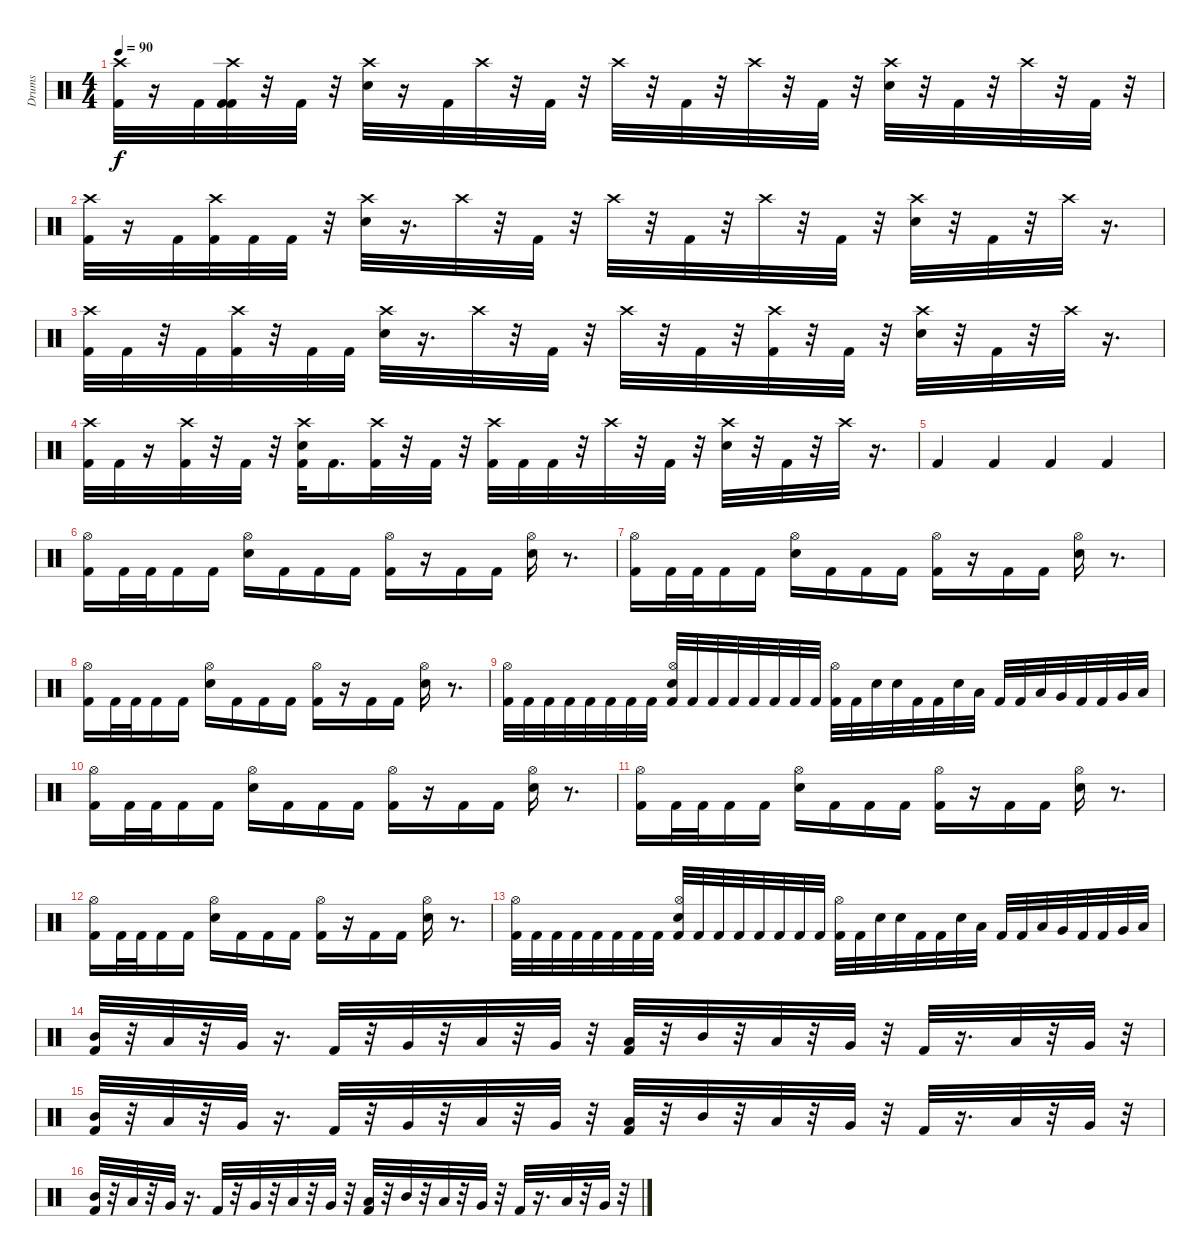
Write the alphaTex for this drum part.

\track ("Drums" "Drums") {instrument percussion}
\staff {score}
\articulation defaults
\ts (4 4)
\tempo 90
\clef neutral
\ks c
("Kick (hit) 2" "Crash high (hit)").32{dy f} r.16 "Kick (hit) 2".32 ("Kick (hit) 2" "Kick (hit) 2" "Crash high (hit)").32 r.32 "Kick (hit) 2".32 r.32 ("Snare (hit) 2" "Crash high (hit)").32 r.16 "Kick (hit) 2".32 "Crash high (hit)".32 r.32 "Kick (hit) 2".32 r.32 "Crash high (hit)".32 r.32 "Kick (hit) 2".32 r.32 "Crash high (hit)".32 r.32 "Kick (hit) 2".32 r.32 ("Snare (hit) 2" "Crash high (hit)").32 r.32 "Kick (hit) 2".32 r.32 "Crash high (hit)".32 r.32 "Kick (hit) 2".32 r.32 |
("Kick (hit) 2" "Crash high (hit)").32 r.16 "Kick (hit) 2".32 ("Kick (hit) 2" "Crash high (hit)").32 "Kick (hit) 2".32 "Kick (hit) 2".32 r.32 ("Snare (hit) 2" "Crash high (hit)").32 r.16{d} "Crash high (hit)".32 r.32 "Kick (hit) 2".32 r.32 "Crash high (hit)".32 r.32 "Kick (hit) 2".32 r.32 "Crash high (hit)".32 r.32 "Kick (hit) 2".32 r.32 ("Snare (hit) 2" "Crash high (hit)").32 r.32 "Kick (hit) 2".32 r.32 "Crash high (hit)".32 r.16{d} |
("Kick (hit) 2" "Crash high (hit)").32 "Kick (hit) 2".32 r.32 "Kick (hit) 2".32 ("Kick (hit) 2" "Crash high (hit)").32 r.32 "Kick (hit) 2".32 "Kick (hit) 2".32 ("Snare (hit) 2" "Crash high (hit)").32 r.16{d} "Crash high (hit)".32 r.32 "Kick (hit) 2".32 r.32 "Crash high (hit)".32 r.32 "Kick (hit) 2".32 r.32 ("Kick (hit) 2" "Crash high (hit)").32 r.32 "Kick (hit) 2".32 r.32 ("Snare (hit) 2" "Crash high (hit)").32 r.32 "Kick (hit) 2".32 r.32 "Crash high (hit)".32 r.16{d} |
("Kick (hit) 2" "Crash high (hit)").32 "Kick (hit) 2".32 r.16 ("Kick (hit) 2" "Crash high (hit)").32 r.32 "Kick (hit) 2".32 r.32 ("Snare (hit) 2" "Crash high (hit)" "Kick (hit) 2").32 "Kick (hit) 2".16{d} ("Crash high (hit)" "Kick (hit) 2").32 r.32 "Kick (hit) 2".32 r.32 ("Crash high (hit)" "Kick (hit) 2").32 "Kick (hit) 2".32 "Kick (hit) 2".32 r.32 "Crash high (hit)".32 r.32 "Kick (hit) 2".32 r.32 ("Snare (hit) 2" "Crash high (hit)").32 r.32 "Kick (hit) 2".32 r.32 "Crash high (hit)".32 r.16{d} |
"Kick (hit) 2".4 "Kick (hit) 2".4 "Kick (hit) 2".4 "Kick (hit) 2".4 |
("Kick (hit) 2" "Hi-Hat (open)").16 "Kick (hit) 2".32 "Kick (hit) 2".32 "Kick (hit) 2".16 "Kick (hit) 2".16 ("Electric Snare (hit)" "Hi-Hat (open)").16 "Kick (hit) 2".16 "Kick (hit) 2".16 "Kick (hit) 2".16 ("Kick (hit) 2" "Hi-Hat (open)").16 r.16 "Kick (hit) 2".16 "Kick (hit) 2".16 ("Electric Snare (hit)" "Hi-Hat (open)").16 r.8{d} |
("Kick (hit) 2" "Hi-Hat (open)").16 "Kick (hit) 2".32 "Kick (hit) 2".32 "Kick (hit) 2".16 "Kick (hit) 2".16 ("Electric Snare (hit)" "Hi-Hat (open)").16 "Kick (hit) 2".16 "Kick (hit) 2".16 "Kick (hit) 2".16 ("Kick (hit) 2" "Hi-Hat (open)").16 r.16 "Kick (hit) 2".16 "Kick (hit) 2".16 ("Electric Snare (hit)" "Hi-Hat (open)").16 r.8{d} |
("Kick (hit) 2" "Hi-Hat (open)").16 "Kick (hit) 2".32 "Kick (hit) 2".32 "Kick (hit) 2".16 "Kick (hit) 2".16 ("Electric Snare (hit)" "Hi-Hat (open)").16 "Kick (hit) 2".16 "Kick (hit) 2".16 "Kick (hit) 2".16 ("Kick (hit) 2" "Hi-Hat (open)").16 r.16 "Kick (hit) 2".16 "Kick (hit) 2".16 ("Electric Snare (hit)" "Hi-Hat (open)").16 r.8{d} |
("Kick (hit) 2" "Hi-Hat (open)").32 "Kick (hit) 2".32 "Kick (hit) 2".32 "Kick (hit) 2".32 "Kick (hit) 2".32 "Kick (hit) 2".32 "Kick (hit) 2".32 "Kick (hit) 2".32 ("Kick (hit) 2" "Electric Snare (hit)" "Hi-Hat (open)").32 "Kick (hit) 2".32 "Kick (hit) 2".32 "Kick (hit) 2".32 "Kick (hit) 2".32 "Kick (hit) 2".32 "Kick (hit) 2".32 "Kick (hit) 2".32 ("Kick (hit) 2" "Hi-Hat (open)").32 "Kick (hit) 2".32 "Electric Snare (hit)".32 "Electric Snare (hit)".32 "Kick (hit) 2".32 "Kick (hit) 2".32 "Electric Snare (hit)".32 "Low Tom (hit)".32 "Kick (hit) 2".32 "Kick (hit) 2".32 "Low Tom (hit)".32 "Very Low Tom (hit)".32 "Kick (hit) 2".32 "Kick (hit) 2".32 "Very Low Tom (hit)".32 "Low Floor Tom (hit)".32 |
("Kick (hit) 2" "Hi-Hat (open)").16 "Kick (hit) 2".32 "Kick (hit) 2".32 "Kick (hit) 2".16 "Kick (hit) 2".16 ("Electric Snare (hit)" "Hi-Hat (open)").16 "Kick (hit) 2".16 "Kick (hit) 2".16 "Kick (hit) 2".16 ("Kick (hit) 2" "Hi-Hat (open)").16 r.16 "Kick (hit) 2".16 "Kick (hit) 2".16 ("Electric Snare (hit)" "Hi-Hat (open)").16 r.8{d} |
("Kick (hit) 2" "Hi-Hat (open)").16 "Kick (hit) 2".32 "Kick (hit) 2".32 "Kick (hit) 2".16 "Kick (hit) 2".16 ("Electric Snare (hit)" "Hi-Hat (open)").16 "Kick (hit) 2".16 "Kick (hit) 2".16 "Kick (hit) 2".16 ("Kick (hit) 2" "Hi-Hat (open)").16 r.16 "Kick (hit) 2".16 "Kick (hit) 2".16 ("Electric Snare (hit)" "Hi-Hat (open)").16 r.8{d} |
("Kick (hit) 2" "Hi-Hat (open)").16 "Kick (hit) 2".32 "Kick (hit) 2".32 "Kick (hit) 2".16 "Kick (hit) 2".16 ("Electric Snare (hit)" "Hi-Hat (open)").16 "Kick (hit) 2".16 "Kick (hit) 2".16 "Kick (hit) 2".16 ("Kick (hit) 2" "Hi-Hat (open)").16 r.16 "Kick (hit) 2".16 "Kick (hit) 2".16 ("Electric Snare (hit)" "Hi-Hat (open)").16 r.8{d} |
("Kick (hit) 2" "Hi-Hat (open)").32 "Kick (hit) 2".32 "Kick (hit) 2".32 "Kick (hit) 2".32 "Kick (hit) 2".32 "Kick (hit) 2".32 "Kick (hit) 2".32 "Kick (hit) 2".32 ("Kick (hit) 2" "Electric Snare (hit)" "Hi-Hat (open)").32 "Kick (hit) 2".32 "Kick (hit) 2".32 "Kick (hit) 2".32 "Kick (hit) 2".32 "Kick (hit) 2".32 "Kick (hit) 2".32 "Kick (hit) 2".32 ("Kick (hit) 2" "Hi-Hat (open)").32 "Kick (hit) 2".32 "Electric Snare (hit)".32 "Electric Snare (hit)".32 "Kick (hit) 2".32 "Kick (hit) 2".32 "Electric Snare (hit)".32 "Low Tom (hit)".32 "Kick (hit) 2".32 "Kick (hit) 2".32 "Low Tom (hit)".32 "Very Low Tom (hit)".32 "Kick (hit) 2".32 "Kick (hit) 2".32 "Very Low Tom (hit)".32 "Low Floor Tom (hit)".32 |
("Kick (hit) 2" "Mid Tom (hit)").32 r.32 "Low Tom (hit)".32 r.32 "Very Low Tom (hit)".32 r.16{d} "Kick (hit) 2".32 r.32 "Very Low Tom (hit)".32 r.32 "Low Tom (hit)".32 r.32 "Very Low Tom (hit)".32 r.32 ("Kick (hit) 2" "Low Tom (hit)").32 r.32 "Mid Tom (hit)".32 r.32 "Low Floor Tom (hit)".32 r.32 "Very Low Tom (hit)".32 r.32 "Kick (hit) 2".32 r.16{d} "Low Floor Tom (hit)".32 r.32 "Very Low Tom (hit)".32 r.32 |
("Kick (hit) 2" "Mid Tom (hit)").32 r.32 "Low Tom (hit)".32 r.32 "Very Low Tom (hit)".32 r.16{d} "Kick (hit) 2".32 r.32 "Very Low Tom (hit)".32 r.32 "Low Tom (hit)".32 r.32 "Very Low Tom (hit)".32 r.32 ("Kick (hit) 2" "Low Tom (hit)").32 r.32 "Mid Tom (hit)".32 r.32 "Low Floor Tom (hit)".32 r.32 "Very Low Tom (hit)".32 r.32 "Kick (hit) 2".32 r.16{d} "Low Floor Tom (hit)".32 r.32 "Very Low Tom (hit)".32 r.32 |
("Kick (hit) 2" "Mid Tom (hit)").32 r.32 "Low Tom (hit)".32 r.32 "Very Low Tom (hit)".32 r.16{d} "Kick (hit) 2".32 r.32 "Very Low Tom (hit)".32 r.32 "Low Tom (hit)".32 r.32 "Very Low Tom (hit)".32 r.32 ("Kick (hit) 2" "Low Tom (hit)").32 r.32 "Mid Tom (hit)".32 r.32 "Low Floor Tom (hit)".32 r.32 "Very Low Tom (hit)".32 r.32 "Kick (hit) 2".32 r.16{d} "Low Floor Tom (hit)".32 r.32 "Very Low Tom (hit)".32 r.32
